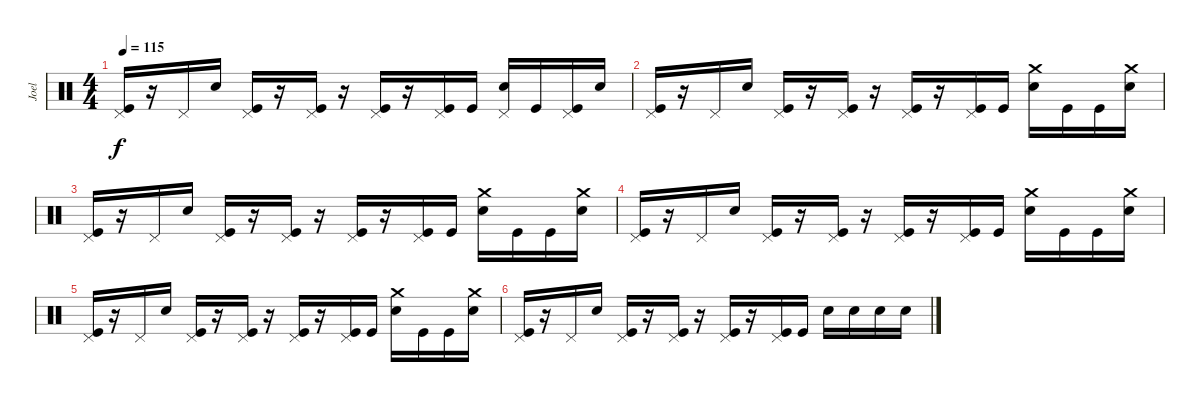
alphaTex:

\track ("Joel" "Joel") {instrument percussion}
\staff {score}
\articulation defaults
\ts (4 4)
\tempo 115
\clef neutral
\ks c
("Pedal Hi-Hat (hit)" "Kick (hit)").16{dy f} r.16 "Pedal Hi-Hat (hit)".16 "Electric Snare (hit)".16 ("Pedal Hi-Hat (hit)" "Kick (hit)").16 r.16 ("Pedal Hi-Hat (hit)" "Kick (hit)").16 r.16 ("Pedal Hi-Hat (hit)" "Kick (hit)").16 r.16 ("Pedal Hi-Hat (hit)" "Kick (hit)").16 "Kick (hit)".16 ("Pedal Hi-Hat (hit)" "Electric Snare (hit)").16 "Kick (hit)".16 ("Pedal Hi-Hat (hit)" "Kick (hit)").16 "Electric Snare (hit)".16 |
("Pedal Hi-Hat (hit)" "Kick (hit)").16 r.16 "Pedal Hi-Hat (hit)".16 "Electric Snare (hit)".16 ("Pedal Hi-Hat (hit)" "Kick (hit)").16 r.16 ("Pedal Hi-Hat (hit)" "Kick (hit)").16 r.16 ("Pedal Hi-Hat (hit)" "Kick (hit)").16 r.16 ("Pedal Hi-Hat (hit)" "Kick (hit)").16 "Kick (hit)".16 ("Crash medium (hit)" "Electric Snare (hit)").16 "Kick (hit)".16 "Kick (hit)".16 ("Crash medium (hit)" "Electric Snare (hit)").16 |
("Pedal Hi-Hat (hit)" "Kick (hit)").16 r.16 "Pedal Hi-Hat (hit)".16 "Electric Snare (hit)".16 ("Pedal Hi-Hat (hit)" "Kick (hit)").16 r.16 ("Pedal Hi-Hat (hit)" "Kick (hit)").16 r.16 ("Pedal Hi-Hat (hit)" "Kick (hit)").16 r.16 ("Pedal Hi-Hat (hit)" "Kick (hit)").16 "Kick (hit)".16 ("Crash medium (hit)" "Electric Snare (hit)").16 "Kick (hit)".16 "Kick (hit)".16 ("Crash medium (hit)" "Electric Snare (hit)").16 |
("Pedal Hi-Hat (hit)" "Kick (hit)").16 r.16 "Pedal Hi-Hat (hit)".16 "Electric Snare (hit)".16 ("Pedal Hi-Hat (hit)" "Kick (hit)").16 r.16 ("Pedal Hi-Hat (hit)" "Kick (hit)").16 r.16 ("Pedal Hi-Hat (hit)" "Kick (hit)").16 r.16 ("Pedal Hi-Hat (hit)" "Kick (hit)").16 "Kick (hit)".16 ("Crash medium (hit)" "Electric Snare (hit)").16 "Kick (hit)".16 "Kick (hit)".16 ("Crash medium (hit)" "Electric Snare (hit)").16 |
("Pedal Hi-Hat (hit)" "Kick (hit)").16 r.16 "Pedal Hi-Hat (hit)".16 "Electric Snare (hit)".16 ("Pedal Hi-Hat (hit)" "Kick (hit)").16 r.16 ("Pedal Hi-Hat (hit)" "Kick (hit)").16 r.16 ("Pedal Hi-Hat (hit)" "Kick (hit)").16 r.16 ("Pedal Hi-Hat (hit)" "Kick (hit)").16 "Kick (hit)".16 ("Crash medium (hit)" "Electric Snare (hit)").16 "Kick (hit)".16 "Kick (hit)".16 ("Crash medium (hit)" "Electric Snare (hit)").16 |
("Pedal Hi-Hat (hit)" "Kick (hit)").16 r.16 "Pedal Hi-Hat (hit)".16 "Electric Snare (hit)".16 ("Pedal Hi-Hat (hit)" "Kick (hit)").16 r.16 ("Pedal Hi-Hat (hit)" "Kick (hit)").16 r.16 ("Pedal Hi-Hat (hit)" "Kick (hit)").16 r.16 ("Pedal Hi-Hat (hit)" "Kick (hit)").16 "Kick (hit)".16 "Electric Snare (hit)".16 "Electric Snare (hit)".16 "Electric Snare (hit)".16 "Electric Snare (hit)".16
